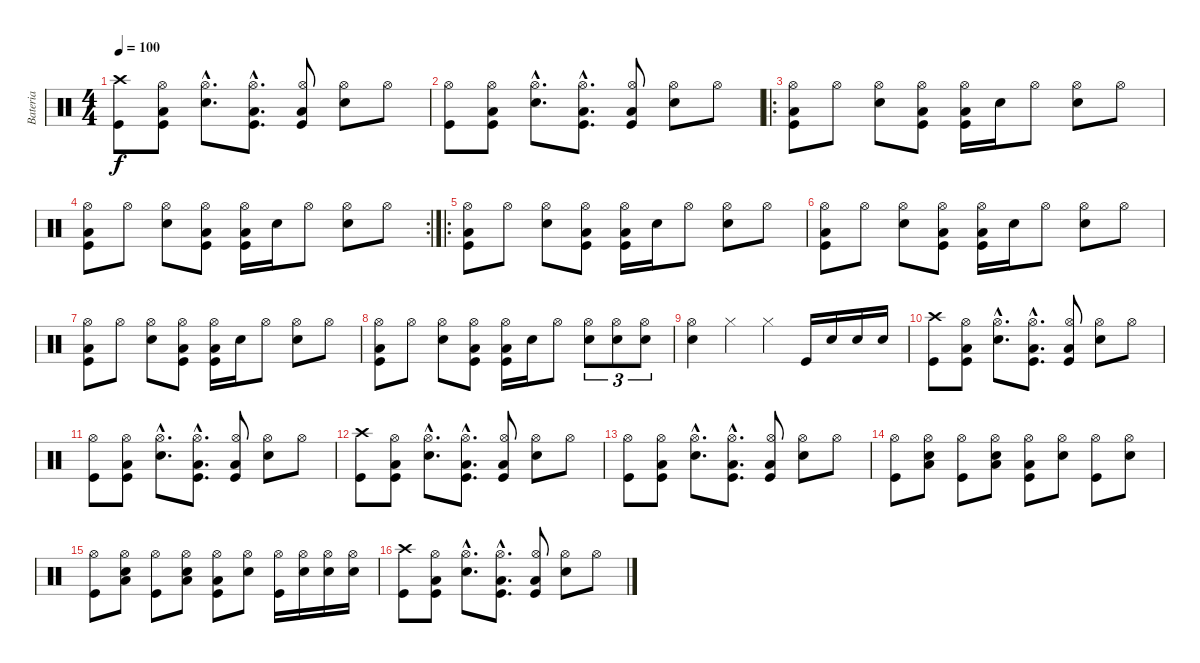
\track ("Bateria" "Bateria") {instrument percussion}
\staff {score}
\articulation defaults
\ts (4 4)
\tempo 100
\clef neutral
\ks c
("Crash high (hit)" "Kick (hit)").8{dy f} ("Hi-Hat (open)" "Kick (hit)" "Low Tom (hit)").8 ("Hi-Hat (open)"{hac} "Snare (hit) 2"{hac}).8{d} ("Hi-Hat (open)"{hac} "Kick (hit)"{hac} "Low Tom (hit)"{hac}).8{d} ("Hi-Hat (open)" "Kick (hit)" "Low Tom (hit)").8 ("Hi-Hat (open)" "Snare (hit) 2").8 "Hi-Hat (open)".8 |
("Hi-Hat (open)" "Kick (hit)").8 ("Hi-Hat (open)" "Kick (hit)" "Low Tom (hit)").8 ("Hi-Hat (open)"{hac} "Snare (hit) 2"{hac}).8{d} ("Hi-Hat (open)"{hac} "Kick (hit)"{hac} "Low Tom (hit)"{hac}).8{d} ("Hi-Hat (open)" "Kick (hit)" "Low Tom (hit)").8 ("Hi-Hat (open)" "Snare (hit) 2").8 "Hi-Hat (open)".8 |
\ro
("Hi-Hat (open)" "Kick (hit)" "Low Tom (hit)").8 "Hi-Hat (open)".8 ("Hi-Hat (open)" "Snare (hit) 2").8 ("Hi-Hat (open)" "Kick (hit)" "Low Tom (hit)").8 ("Hi-Hat (open)" "Kick (hit)" "Low Tom (hit)").16 "Snare (hit) 2".16 "Hi-Hat (open)".8 ("Hi-Hat (open)" "Snare (hit) 2").8 "Hi-Hat (open)".8 |
\rc 2
("Hi-Hat (open)" "Kick (hit)" "Low Tom (hit)").8 "Hi-Hat (open)".8 ("Hi-Hat (open)" "Snare (hit) 2").8 ("Hi-Hat (open)" "Kick (hit)" "Low Tom (hit)").8 ("Hi-Hat (open)" "Kick (hit)" "Low Tom (hit)").16 "Snare (hit) 2".16 "Hi-Hat (open)".8 ("Hi-Hat (open)" "Snare (hit) 2").8 "Hi-Hat (open)".8 |
\ro
("Hi-Hat (open)" "Kick (hit)" "Low Tom (hit)").8 "Hi-Hat (open)".8 ("Hi-Hat (open)" "Snare (hit) 2").8 ("Hi-Hat (open)" "Kick (hit)" "Low Tom (hit)").8 ("Hi-Hat (open)" "Kick (hit)" "Low Tom (hit)").16 "Snare (hit) 2".16 "Hi-Hat (open)".8 ("Hi-Hat (open)" "Snare (hit) 2").8 "Hi-Hat (open)".8 |
("Hi-Hat (open)" "Kick (hit)" "Low Tom (hit)").8 "Hi-Hat (open)".8 ("Hi-Hat (open)" "Snare (hit) 2").8 ("Hi-Hat (open)" "Kick (hit)" "Low Tom (hit)").8 ("Hi-Hat (open)" "Kick (hit)" "Low Tom (hit)").16 "Snare (hit) 2".16 "Hi-Hat (open)".8 ("Hi-Hat (open)" "Snare (hit) 2").8 "Hi-Hat (open)".8 |
("Hi-Hat (open)" "Kick (hit)" "Low Tom (hit)").8 "Hi-Hat (open)".8 ("Hi-Hat (open)" "Snare (hit) 2").8 ("Hi-Hat (open)" "Kick (hit)" "Low Tom (hit)").8 ("Hi-Hat (open)" "Kick (hit)" "Low Tom (hit)").16 "Snare (hit) 2".16 "Hi-Hat (open)".8 ("Hi-Hat (open)" "Snare (hit) 2").8 "Hi-Hat (open)".8 |
("Hi-Hat (open)" "Kick (hit)" "Low Tom (hit)").8 "Hi-Hat (open)".8 ("Hi-Hat (open)" "Snare (hit) 2").8 ("Hi-Hat (open)" "Kick (hit)" "Low Tom (hit)").8 ("Hi-Hat (open)" "Kick (hit)" "Low Tom (hit)").16 "Snare (hit) 2".16 "Hi-Hat (open)".8 ("Hi-Hat (open)" "Snare (hit) 2").8{tu (3 2)} ("Hi-Hat (open)" "Snare (hit) 2").8{tu (3 2)} ("Hi-Hat (open)" "Snare (hit) 2").8{tu (3 2)} |
("Hi-Hat (open)" "Snare (hit) 2").4 "Hi-Hat (closed)".4 "Hi-Hat (closed)".4 "Kick (hit)".16 "Snare (hit) 2".16 "Snare (hit) 2".16 "Snare (hit) 2".16 |
("Crash high (hit)" "Kick (hit)").8 ("Hi-Hat (open)" "Kick (hit)" "Low Tom (hit)").8 ("Hi-Hat (open)"{hac} "Snare (hit) 2"{hac}).8{d} ("Hi-Hat (open)"{hac} "Kick (hit)"{hac} "Low Tom (hit)"{hac}).8{d} ("Hi-Hat (open)" "Kick (hit)" "Low Tom (hit)").8 ("Hi-Hat (open)" "Snare (hit) 2").8 "Hi-Hat (open)".8 |
("Hi-Hat (open)" "Kick (hit)").8 ("Hi-Hat (open)" "Kick (hit)" "Low Tom (hit)").8 ("Hi-Hat (open)"{hac} "Snare (hit) 2"{hac}).8{d} ("Hi-Hat (open)"{hac} "Kick (hit)"{hac} "Low Tom (hit)"{hac}).8{d} ("Hi-Hat (open)" "Kick (hit)" "Low Tom (hit)").8 ("Hi-Hat (open)" "Snare (hit) 2").8 "Hi-Hat (open)".8 |
("Crash high (hit)" "Kick (hit)").8 ("Hi-Hat (open)" "Kick (hit)" "Low Tom (hit)").8 ("Hi-Hat (open)"{hac} "Snare (hit) 2"{hac}).8{d} ("Hi-Hat (open)"{hac} "Kick (hit)"{hac} "Low Tom (hit)"{hac}).8{d} ("Hi-Hat (open)" "Kick (hit)" "Low Tom (hit)").8 ("Hi-Hat (open)" "Snare (hit) 2").8 "Hi-Hat (open)".8 |
("Hi-Hat (open)" "Kick (hit)").8 ("Hi-Hat (open)" "Kick (hit)" "Low Tom (hit)").8 ("Hi-Hat (open)"{hac} "Snare (hit) 2"{hac}).8{d} ("Hi-Hat (open)"{hac} "Kick (hit)"{hac} "Low Tom (hit)"{hac}).8{d} ("Hi-Hat (open)" "Kick (hit)" "Low Tom (hit)").8 ("Hi-Hat (open)" "Snare (hit) 2").8 "Hi-Hat (open)".8 |
("Hi-Hat (open)" "Kick (hit)").8 ("Hi-Hat (open)" "Snare (hit) 2" "Low Tom (hit)").8 ("Hi-Hat (open)" "Kick (hit)").8 ("Hi-Hat (open)" "Snare (hit) 2" "Low Tom (hit)").8 ("Hi-Hat (open)" "Kick (hit)" "Low Tom (hit)").8 ("Hi-Hat (open)" "Snare (hit) 2").8 ("Hi-Hat (open)" "Kick (hit)").8 ("Hi-Hat (open)" "Snare (hit) 2").8 |
("Hi-Hat (open)" "Kick (hit)").8 ("Hi-Hat (open)" "Snare (hit) 2" "Low Tom (hit)").8 ("Hi-Hat (open)" "Kick (hit)").8 ("Hi-Hat (open)" "Snare (hit) 2" "Low Tom (hit)").8 ("Hi-Hat (open)" "Kick (hit)" "Low Tom (hit)").8 ("Hi-Hat (open)" "Snare (hit) 2").8 ("Hi-Hat (open)" "Kick (hit)").16 ("Hi-Hat (open)" "Snare (hit) 2").16 ("Hi-Hat (open)" "Snare (hit) 2").16 ("Hi-Hat (open)" "Snare (hit) 2").16 |
("Crash high (hit)" "Kick (hit)").8 ("Hi-Hat (open)" "Kick (hit)" "Low Tom (hit)").8 ("Hi-Hat (open)"{hac} "Snare (hit) 2"{hac}).8{d} ("Hi-Hat (open)"{hac} "Kick (hit)"{hac} "Low Tom (hit)"{hac}).8{d} ("Hi-Hat (open)" "Kick (hit)" "Low Tom (hit)").8 ("Hi-Hat (open)" "Snare (hit) 2").8 "Hi-Hat (open)".8
